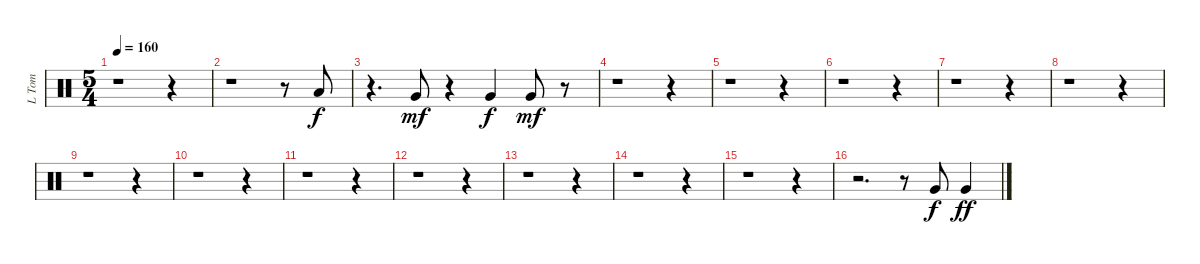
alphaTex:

\track ("L Tom" "L Tom") {instrument percussion}
\staff {score}
\articulation defaults
\ts (5 4)
\tempo 160
\clef neutral
\ks c
r.1{dy ff} r.4 |
r.1 r.8 "Low Floor Tom (hit)".8{dy f} |
r.4{d} "Very Low Tom (hit)".8{dy mf} r.4 "Very Low Tom (hit)".4{dy f} "Very Low Tom (hit)".8{dy mf} r.8 |
r.1 r.4 |
r.1 r.4 |
r.1 r.4 |
r.1 r.4 |
r.1 r.4 |
r.1 r.4 |
r.1 r.4 |
r.1 r.4 |
r.1 r.4 |
r.1 r.4 |
r.1 r.4 |
r.1 r.4 |
r.2{d} r.8 "Very Low Tom (hit)".8{dy f} "Very Low Tom (hit)".4{dy ff}
